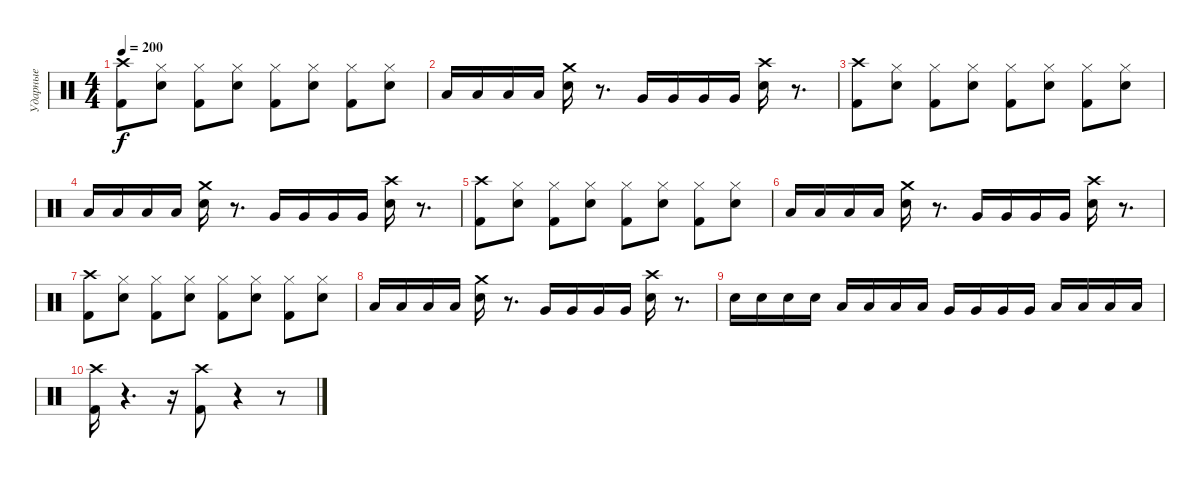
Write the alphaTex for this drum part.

\track ("Ударные" "Ударные") {instrument percussion}
\staff {score}
\articulation defaults
\ts (4 4)
\tempo 200
\clef neutral
\ks c
("Crash high (hit)" "Kick (hit) 2").8{dy f} ("Hi-Hat (closed)" "Snare (hit) 2").8 ("Hi-Hat (closed)" "Kick (hit) 2").8 ("Hi-Hat (closed)" "Snare (hit) 2").8 ("Hi-Hat (closed)" "Kick (hit) 2").8 ("Hi-Hat (closed)" "Snare (hit) 2").8 ("Hi-Hat (closed)" "Kick (hit) 2").8 ("Hi-Hat (closed)" "Snare (hit) 2").8 |
"Low Tom (hit)".16 "Low Tom (hit)".16 "Low Tom (hit)".16 "Low Tom (hit)".16 ("Crash medium (hit)" "Snare (hit) 2").16 r.8{d} "Very Low Tom (hit)".16 "Very Low Tom (hit)".16 "Very Low Tom (hit)".16 "Very Low Tom (hit)".16 ("Crash high (hit)" "Snare (hit) 2").16 r.8{d} |
("Crash high (hit)" "Kick (hit) 2").8 ("Hi-Hat (closed)" "Snare (hit) 2").8 ("Hi-Hat (closed)" "Kick (hit) 2").8 ("Hi-Hat (closed)" "Snare (hit) 2").8 ("Hi-Hat (closed)" "Kick (hit) 2").8 ("Hi-Hat (closed)" "Snare (hit) 2").8 ("Hi-Hat (closed)" "Kick (hit) 2").8 ("Hi-Hat (closed)" "Snare (hit) 2").8 |
"Low Tom (hit)".16 "Low Tom (hit)".16 "Low Tom (hit)".16 "Low Tom (hit)".16 ("Crash medium (hit)" "Snare (hit) 2").16 r.8{d} "Very Low Tom (hit)".16 "Very Low Tom (hit)".16 "Very Low Tom (hit)".16 "Very Low Tom (hit)".16 ("Crash high (hit)" "Snare (hit) 2").16 r.8{d} |
("Crash high (hit)" "Kick (hit) 2").8 ("Hi-Hat (closed)" "Snare (hit) 2").8 ("Hi-Hat (closed)" "Kick (hit) 2").8 ("Hi-Hat (closed)" "Snare (hit) 2").8 ("Hi-Hat (closed)" "Kick (hit) 2").8 ("Hi-Hat (closed)" "Snare (hit) 2").8 ("Hi-Hat (closed)" "Kick (hit) 2").8 ("Hi-Hat (closed)" "Snare (hit) 2").8 |
"Low Tom (hit)".16 "Low Tom (hit)".16 "Low Tom (hit)".16 "Low Tom (hit)".16 ("Crash medium (hit)" "Snare (hit) 2").16 r.8{d} "Very Low Tom (hit)".16 "Very Low Tom (hit)".16 "Very Low Tom (hit)".16 "Very Low Tom (hit)".16 ("Crash high (hit)" "Snare (hit) 2").16 r.8{d} |
("Crash high (hit)" "Kick (hit) 2").8 ("Hi-Hat (closed)" "Snare (hit) 2").8 ("Hi-Hat (closed)" "Kick (hit) 2").8 ("Hi-Hat (closed)" "Snare (hit) 2").8 ("Hi-Hat (closed)" "Kick (hit) 2").8 ("Hi-Hat (closed)" "Snare (hit) 2").8 ("Hi-Hat (closed)" "Kick (hit) 2").8 ("Hi-Hat (closed)" "Snare (hit) 2").8 |
"Low Tom (hit)".16 "Low Tom (hit)".16 "Low Tom (hit)".16 "Low Tom (hit)".16 ("Crash medium (hit)" "Snare (hit) 2").16 r.8{d} "Very Low Tom (hit)".16 "Very Low Tom (hit)".16 "Very Low Tom (hit)".16 "Very Low Tom (hit)".16 ("Crash high (hit)" "Snare (hit) 2").16 r.8{d} |
"Snare (hit) 2".16 "Snare (hit) 2".16 "Snare (hit) 2".16 "Snare (hit) 2".16 "Low Tom (hit)".16 "Low Tom (hit)".16 "Low Tom (hit)".16 "Low Tom (hit)".16 "Very Low Tom (hit)".16 "Very Low Tom (hit)".16 "Very Low Tom (hit)".16 "Very Low Tom (hit)".16 "Low Floor Tom (hit)".16 "Low Floor Tom (hit)".16 "Low Floor Tom (hit)".16 "Low Floor Tom (hit)".16 |
("Crash high (hit)" "Kick (hit) 2").16 r.4{d} r.16 ("Crash high (hit)" "Kick (hit) 2").8 r.4 r.8
